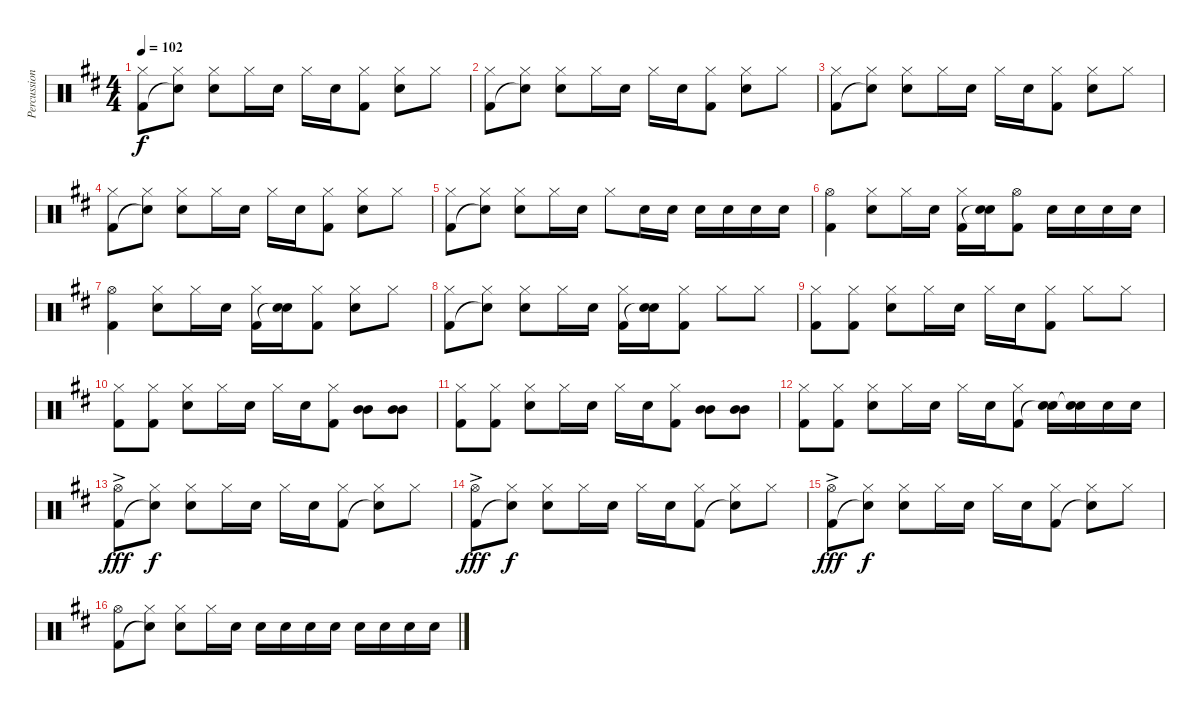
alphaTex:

\track ("Percussion" "Percussion") {instrument percussion}
\staff {score}
\articulation defaults
\ts (4 4)
\tempo 102
\clef neutral
\ks d
("Hi-Hat (closed)" "Kick (hit) 2").8{dy f} ("Hi-Hat (closed)" "Snare (hit)"{t}).8 ("Hi-Hat (closed)" "Snare (hit) 2").8 "Hi-Hat (closed)".16 "Snare (hit) 2".16 "Hi-Hat (closed)".16 "Snare (hit) 2".16 ("Hi-Hat (closed)" "Kick (hit) 2").8 ("Hi-Hat (closed)" "Snare (hit) 2").8 "Hi-Hat (closed)".8 |
("Hi-Hat (closed)" "Kick (hit) 2").8 ("Hi-Hat (closed)" "Snare (hit)"{t}).8 ("Hi-Hat (closed)" "Snare (hit) 2").8 "Hi-Hat (closed)".16 "Snare (hit) 2".16 "Hi-Hat (closed)".16 "Snare (hit) 2".16 ("Hi-Hat (closed)" "Kick (hit) 2").8 ("Hi-Hat (closed)" "Snare (hit) 2").8 "Hi-Hat (closed)".8 |
("Hi-Hat (closed)" "Kick (hit) 2").8 ("Hi-Hat (closed)" "Snare (hit)"{t}).8 ("Hi-Hat (closed)" "Snare (hit) 2").8 "Hi-Hat (closed)".16 "Snare (hit) 2".16 "Hi-Hat (closed)".16 "Snare (hit) 2".16 ("Hi-Hat (closed)" "Kick (hit) 2").8 ("Hi-Hat (closed)" "Snare (hit) 2").8 "Hi-Hat (closed)".8 |
("Hi-Hat (closed)" "Kick (hit) 2").8 ("Hi-Hat (closed)" "Snare (hit)"{t}).8 ("Hi-Hat (closed)" "Snare (hit) 2").8 "Hi-Hat (closed)".16 "Snare (hit) 2".16 "Hi-Hat (closed)".16 "Snare (hit) 2".16 ("Hi-Hat (closed)" "Kick (hit) 2").8 ("Hi-Hat (closed)" "Snare (hit) 2").8 "Hi-Hat (closed)".8 |
("Hi-Hat (closed)" "Kick (hit) 2").8 ("Hi-Hat (closed)" "Snare (hit)"{t}).8 ("Hi-Hat (closed)" "Snare (hit) 2").8 "Hi-Hat (closed)".16 "Snare (hit) 2".16 "Hi-Hat (closed)".8 "Snare (hit) 2".16 "Snare (hit) 2".16 "Snare (hit) 2".16 "Snare (hit) 2".16 "Snare (hit) 2".16 "Snare (hit) 2".16 |
("Hi-Hat (open)" "Kick (hit) 2").4 ("Hi-Hat (closed)" "Snare (hit) 2").8 "Hi-Hat (closed)".16 "Snare (hit) 2".16 ("Hi-Hat (closed)" "Kick (hit) 2").16 ("Snare (hit) 2" "Snare (hit)"{t}).16 ("Hi-Hat (open)" "Kick (hit) 2").8 "Snare (hit) 2".16 "Snare (hit) 2".16 "Snare (hit) 2".16 "Snare (hit) 2".16 |
("Hi-Hat (open)" "Kick (hit) 2").4 ("Hi-Hat (closed)" "Snare (hit) 2").8 "Hi-Hat (closed)".16 "Snare (hit) 2".16 ("Hi-Hat (closed)" "Kick (hit) 2").16 ("Snare (hit) 2" "Snare (hit)"{t}).16 ("Hi-Hat (closed)" "Kick (hit) 2").8 ("Hi-Hat (closed)" "Snare (hit) 2").8 "Hi-Hat (closed)".8 |
("Hi-Hat (closed)" "Kick (hit) 2").8 ("Hi-Hat (closed)" "Snare (hit)"{t}).8 ("Hi-Hat (closed)" "Snare (hit) 2").8 "Hi-Hat (closed)".16 "Snare (hit) 2".16 ("Hi-Hat (closed)" "Kick (hit) 2").16 ("Snare (hit) 2" "Snare (hit)"{t}).16 ("Hi-Hat (closed)" "Kick (hit) 2").8 "Hi-Hat (closed)".8 "Hi-Hat (closed)".8 |
("Hi-Hat (closed)" "Kick (hit) 2").8 ("Hi-Hat (closed)" "Kick (hit) 2").8 ("Hi-Hat (closed)" "Snare (hit) 2").8 "Hi-Hat (closed)".16 "Snare (hit) 2".16 "Hi-Hat (closed)".16 "Snare (hit) 2".16 ("Hi-Hat (closed)" "Kick (hit) 2").8 "Hi-Hat (closed)".8 "Hi-Hat (closed)".8 |
("Hi-Hat (closed)" "Kick (hit) 2").8 ("Hi-Hat (closed)" "Kick (hit) 2").8 ("Hi-Hat (closed)" "Snare (hit) 2").8 "Hi-Hat (closed)".16 "Snare (hit) 2".16 "Hi-Hat (closed)".16 "Snare (hit) 2".16 ("Hi-Hat (closed)" "Kick (hit) 2").8 ("Mid Tom (hit)" "Mid Tom (hit)").8 ("Mid Tom (hit)" "Mid Tom (hit)").8 |
("Hi-Hat (closed)" "Kick (hit) 2").8 ("Hi-Hat (closed)" "Kick (hit) 2").8 ("Hi-Hat (closed)" "Snare (hit) 2").8 "Hi-Hat (closed)".16 "Snare (hit) 2".16 "Hi-Hat (closed)".16 "Snare (hit) 2".16 ("Hi-Hat (closed)" "Kick (hit) 2").8 ("Mid Tom (hit)" "Mid Tom (hit)").8 ("Mid Tom (hit)" "Mid Tom (hit)").8 |
("Hi-Hat (closed)" "Kick (hit) 2").8 ("Hi-Hat (closed)" "Kick (hit) 2").8 ("Hi-Hat (closed)" "Snare (hit) 2").8 "Hi-Hat (closed)".16 "Snare (hit) 2".16 "Hi-Hat (closed)".16 "Snare (hit) 2".16 ("Hi-Hat (closed)" "Kick (hit) 2").8 ("Snare (hit) 2" "Snare (hit)"{t}).16 ("Snare (hit) 2" "Snare (hit)"{t}).16 "Snare (hit) 2".16 "Snare (hit) 2".16 |
("Hi-Hat (open)"{ac} "Kick (hit) 2"{ac}).8{dy fff} ("Hi-Hat (closed)" "Snare (hit)"{t}).8{dy f} ("Hi-Hat (closed)" "Snare (hit) 2").8 "Hi-Hat (closed)".16 "Snare (hit) 2".16 "Hi-Hat (closed)".16 "Snare (hit) 2".16 ("Hi-Hat (closed)" "Kick (hit) 2").8 ("Hi-Hat (closed)" "Snare (hit)"{t}).8 "Hi-Hat (closed)".8 |
("Hi-Hat (open)"{ac} "Kick (hit) 2"{ac}).8{dy fff} ("Hi-Hat (closed)" "Snare (hit)"{t}).8{dy f} ("Hi-Hat (closed)" "Snare (hit) 2").8 "Hi-Hat (closed)".16 "Snare (hit) 2".16 "Hi-Hat (closed)".16 "Snare (hit) 2".16 ("Hi-Hat (closed)" "Kick (hit) 2").8 ("Hi-Hat (closed)" "Snare (hit)"{t}).8 "Hi-Hat (closed)".8 |
("Hi-Hat (open)"{ac} "Kick (hit) 2"{ac}).8{dy fff} ("Hi-Hat (closed)" "Snare (hit)"{t}).8{dy f} ("Hi-Hat (closed)" "Snare (hit) 2").8 "Hi-Hat (closed)".16 "Snare (hit) 2".16 "Hi-Hat (closed)".16 "Snare (hit) 2".16 ("Hi-Hat (closed)" "Kick (hit) 2").8 ("Hi-Hat (closed)" "Snare (hit)"{t}).8 "Hi-Hat (closed)".8 |
("Hi-Hat (open)" "Kick (hit) 2").8 ("Hi-Hat (closed)" "Snare (hit)"{t}).8 ("Hi-Hat (closed)" "Snare (hit) 2").8 "Hi-Hat (closed)".16 "Snare (hit) 2".16 "Snare (hit) 2".16 "Snare (hit) 2".16 "Snare (hit) 2".16 "Snare (hit) 2".16 "Snare (hit) 2".16 "Snare (hit) 2".16 "Snare (hit) 2".16 "Snare (hit) 2".16
